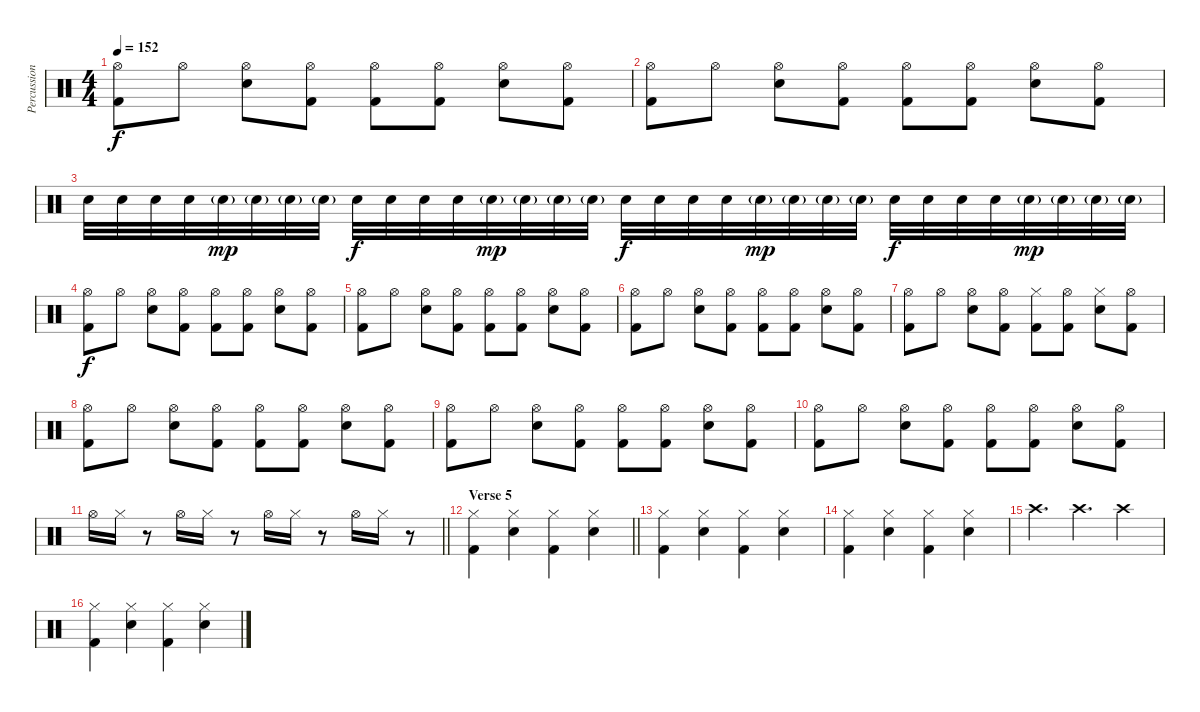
\track ("Percussion" "Percussion") {instrument percussion}
\staff {score}
\articulation defaults
\ts (4 4)
\tempo 152
\clef neutral
\ks c
("Kick (hit) 2" "Hi-Hat (open)").8{dy f} "Hi-Hat (open)".8 ("Snare (hit) 2" "Hi-Hat (open)").8 ("Kick (hit) 2" "Hi-Hat (open)").8 ("Kick (hit) 2" "Hi-Hat (open)").8 ("Kick (hit) 2" "Hi-Hat (open)").8 ("Snare (hit) 2" "Hi-Hat (open)").8 ("Kick (hit) 2" "Hi-Hat (open)").8 |
("Kick (hit) 2" "Hi-Hat (open)").8 "Hi-Hat (open)".8 ("Snare (hit) 2" "Hi-Hat (open)").8 ("Kick (hit) 2" "Hi-Hat (open)").8 ("Kick (hit) 2" "Hi-Hat (open)").8 ("Kick (hit) 2" "Hi-Hat (open)").8 ("Snare (hit) 2" "Hi-Hat (open)").8 ("Kick (hit) 2" "Hi-Hat (open)").8 |
"Snare (hit) 2".32 "Snare (hit) 2".32 "Snare (hit) 2".32 "Snare (hit) 2".32 "Snare (hit) 2"{g}.32{dy mp} "Snare (hit) 2"{g}.32 "Snare (hit) 2"{g}.32 "Snare (hit) 2"{g}.32 "Snare (hit) 2".32{dy f} "Snare (hit) 2".32 "Snare (hit) 2".32 "Snare (hit) 2".32 "Snare (hit) 2"{g}.32{dy mp} "Snare (hit) 2"{g}.32 "Snare (hit) 2"{g}.32 "Snare (hit) 2"{g}.32 "Snare (hit) 2".32{dy f} "Snare (hit) 2".32 "Snare (hit) 2".32 "Snare (hit) 2".32 "Snare (hit) 2"{g}.32{dy mp} "Snare (hit) 2"{g}.32 "Snare (hit) 2"{g}.32 "Snare (hit) 2"{g}.32 "Snare (hit) 2".32{dy f} "Snare (hit) 2".32 "Snare (hit) 2".32 "Snare (hit) 2".32 "Snare (hit) 2"{g}.32{dy mp} "Snare (hit) 2"{g}.32 "Snare (hit) 2"{g}.32 "Snare (hit) 2"{g}.32 |
("Kick (hit) 2" "Hi-Hat (open)").8{dy f} "Hi-Hat (open)".8 ("Snare (hit) 2" "Hi-Hat (open)").8 ("Kick (hit) 2" "Hi-Hat (open)").8 ("Kick (hit) 2" "Hi-Hat (open)").8 ("Kick (hit) 2" "Hi-Hat (open)").8 ("Snare (hit) 2" "Hi-Hat (open)").8 ("Kick (hit) 2" "Hi-Hat (open)").8 |
("Kick (hit) 2" "Hi-Hat (open)").8 "Hi-Hat (open)".8 ("Snare (hit) 2" "Hi-Hat (open)").8 ("Kick (hit) 2" "Hi-Hat (open)").8 ("Kick (hit) 2" "Hi-Hat (open)").8 ("Kick (hit) 2" "Hi-Hat (open)").8 ("Snare (hit) 2" "Hi-Hat (open)").8 ("Kick (hit) 2" "Hi-Hat (open)").8 |
("Kick (hit) 2" "Hi-Hat (open)").8 "Hi-Hat (open)".8 ("Snare (hit) 2" "Hi-Hat (open)").8 ("Kick (hit) 2" "Hi-Hat (open)").8 ("Kick (hit) 2" "Hi-Hat (open)").8 ("Kick (hit) 2" "Hi-Hat (open)").8 ("Snare (hit) 2" "Hi-Hat (open)").8 ("Kick (hit) 2" "Hi-Hat (open)").8 |
("Kick (hit) 2" "Hi-Hat (open)").8 "Hi-Hat (open)".8 ("Snare (hit) 2" "Hi-Hat (open)").8 ("Kick (hit) 2" "Hi-Hat (open)").8 ("Kick (hit) 2" "Hi-Hat (closed)").8 ("Kick (hit) 2" "Hi-Hat (open)").8 ("Snare (hit) 2" "Hi-Hat (closed)").8 ("Kick (hit) 2" "Hi-Hat (open)").8 |
("Kick (hit) 2" "Hi-Hat (open)").8 "Hi-Hat (open)".8 ("Snare (hit) 2" "Hi-Hat (open)").8 ("Kick (hit) 2" "Hi-Hat (open)").8 ("Kick (hit) 2" "Hi-Hat (open)").8 ("Kick (hit) 2" "Hi-Hat (open)").8 ("Snare (hit) 2" "Hi-Hat (open)").8 ("Kick (hit) 2" "Hi-Hat (open)").8 |
("Kick (hit) 2" "Hi-Hat (open)").8 "Hi-Hat (open)".8 ("Snare (hit) 2" "Hi-Hat (open)").8 ("Kick (hit) 2" "Hi-Hat (open)").8 ("Kick (hit) 2" "Hi-Hat (open)").8 ("Kick (hit) 2" "Hi-Hat (open)").8 ("Snare (hit) 2" "Hi-Hat (open)").8 ("Kick (hit) 2" "Hi-Hat (open)").8 |
("Kick (hit) 2" "Hi-Hat (open)").8 "Hi-Hat (open)".8 ("Snare (hit) 2" "Hi-Hat (open)").8 ("Kick (hit) 2" "Hi-Hat (open)").8 ("Kick (hit) 2" "Hi-Hat (open)").8 ("Kick (hit) 2" "Hi-Hat (open)").8 ("Snare (hit) 2" "Hi-Hat (open)").8 ("Kick (hit) 2" "Hi-Hat (open)").8 |
\barLineRight lightlight "Hi-Hat (open)".16 "Hi-Hat (closed)".16
r.8 "Hi-Hat (open)".16 "Hi-Hat (closed)".16 r.8 "Hi-Hat (open)".16 "Hi-Hat (closed)".16 r.8 "Hi-Hat (open)".16 "Hi-Hat (closed)".16 r.8 |
\section ("" "Verse 5")
\barLineRight lightlight
("Kick (hit) 2" "Hi-Hat (closed)").4 ("Snare (hit) 2" "Hi-Hat (closed)").4 ("Kick (hit) 2" "Hi-Hat (closed)").4 ("Snare (hit) 2" "Hi-Hat (closed)").4 |
("Kick (hit) 2" "Hi-Hat (closed)").4 ("Snare (hit) 2" "Hi-Hat (closed)").4 ("Kick (hit) 2" "Hi-Hat (closed)").4 ("Snare (hit) 2" "Hi-Hat (closed)").4 |
("Kick (hit) 2" "Hi-Hat (closed)").4 ("Snare (hit) 2" "Hi-Hat (closed)").4 ("Kick (hit) 2" "Hi-Hat (closed)").4 ("Snare (hit) 2" "Hi-Hat (closed)").4 |
"Crash high (hit)".4{d} "Crash high (hit)".4{d} "Crash high (hit)".4 |
("Kick (hit) 2" "Hi-Hat (closed)").4 ("Snare (hit) 2" "Hi-Hat (closed)").4 ("Kick (hit) 2" "Hi-Hat (closed)").4 ("Snare (hit) 2" "Hi-Hat (closed)").4
